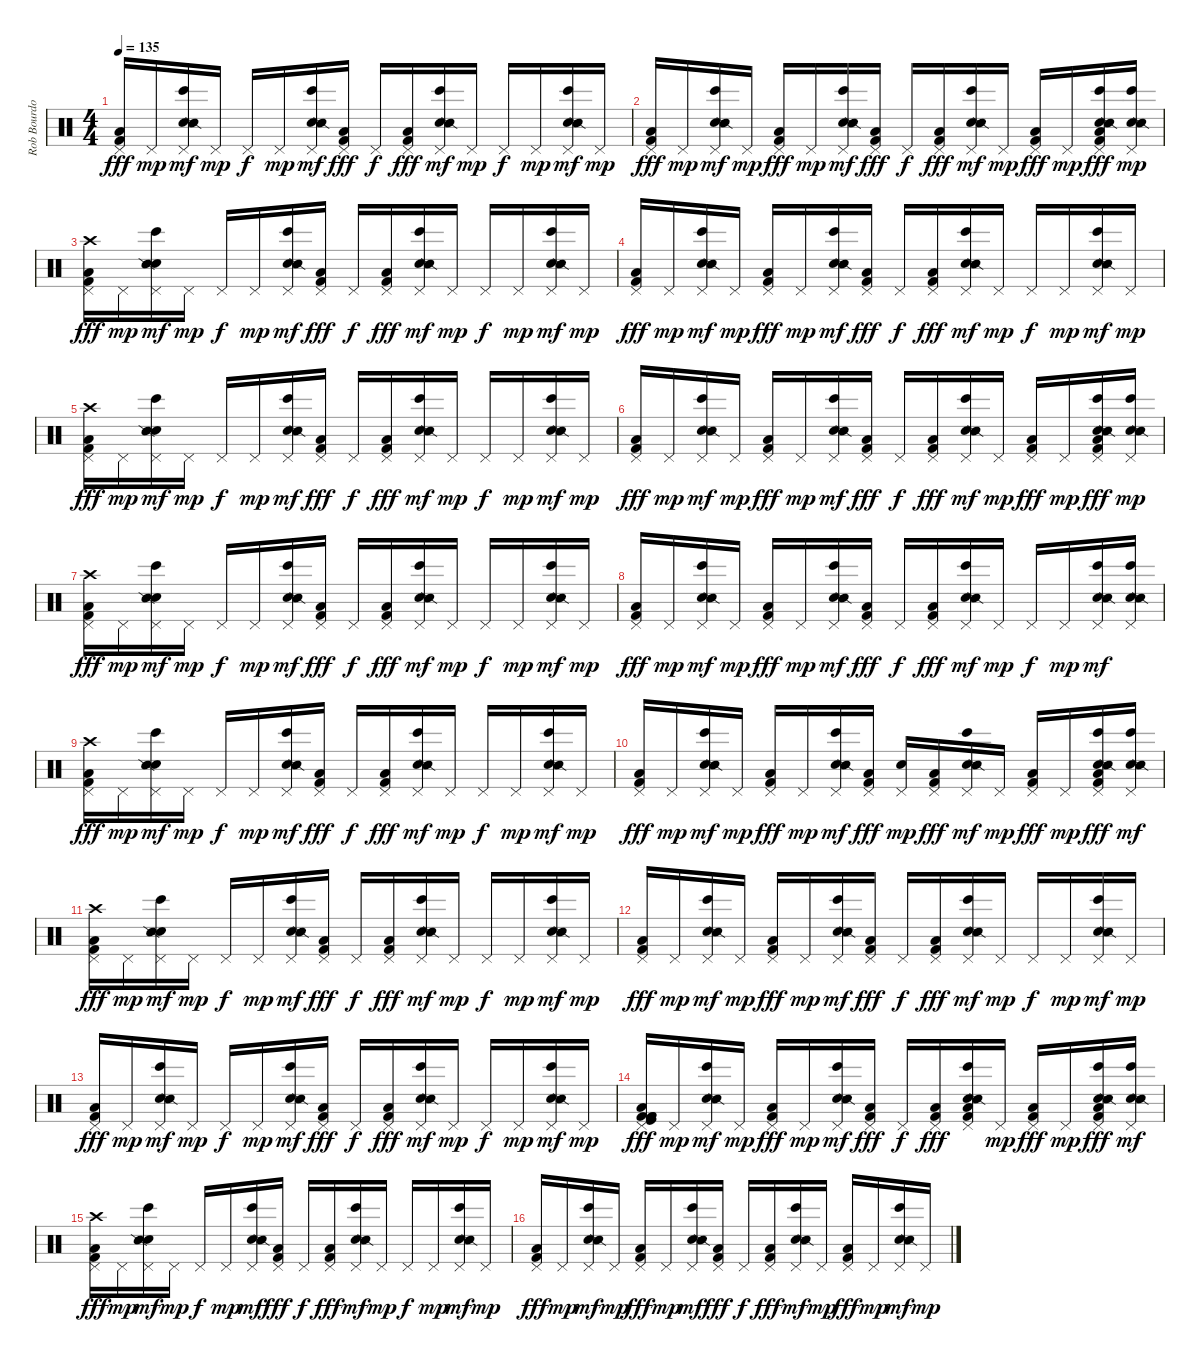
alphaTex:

\track ("Rob Bourdon - Beats & Drums" "Rob Bourdo") {instrument percussion}
\staff {score}
\articulation defaults
\ts (4 4)
\tempo 135
\clef neutral
\ks c
("Low Floor Tom (hit)" "Pedal Hi-Hat (hit)" "Kick (hit) 2").16{dy fff} "Pedal Hi-Hat (hit)".16{dy mp} ("Bongo High (hit)" "Electric Snare (hit)" "Snare (side stick) 2" "Pedal Hi-Hat (hit)").16{dy mf} "Pedal Hi-Hat (hit)".16{dy mp} "Pedal Hi-Hat (hit)".16{dy f} "Pedal Hi-Hat (hit)".16{dy mp} ("Bongo High (hit)" "Electric Snare (hit)" "Snare (side stick) 2" "Pedal Hi-Hat (hit)").16{dy mf} ("Low Floor Tom (hit)" "Pedal Hi-Hat (hit)" "Kick (hit) 2").16{dy fff} "Pedal Hi-Hat (hit)".16{dy f} ("Low Floor Tom (hit)" "Pedal Hi-Hat (hit)" "Kick (hit) 2").16{dy fff} ("Bongo High (hit)" "Electric Snare (hit)" "Snare (side stick) 2" "Pedal Hi-Hat (hit)").16{dy mf} "Pedal Hi-Hat (hit)".16{dy mp} "Pedal Hi-Hat (hit)".16{dy f} "Pedal Hi-Hat (hit)".16{dy mp} ("Bongo High (hit)" "Electric Snare (hit)" "Snare (side stick) 2" "Pedal Hi-Hat (hit)").16{dy mf} "Pedal Hi-Hat (hit)".16{dy mp} |
("Low Floor Tom (hit)" "Pedal Hi-Hat (hit)" "Kick (hit) 2").16{dy fff} "Pedal Hi-Hat (hit)".16{dy mp} ("Bongo High (hit)" "Electric Snare (hit)" "Snare (side stick) 2" "Pedal Hi-Hat (hit)").16{dy mf} "Pedal Hi-Hat (hit)".16{dy mp} ("Low Floor Tom (hit)" "Pedal Hi-Hat (hit)" "Kick (hit) 2").16{dy fff} "Pedal Hi-Hat (hit)".16{dy mp} ("Bongo High (hit)" "Electric Snare (hit)" "Snare (side stick) 2" "Pedal Hi-Hat (hit)").16{dy mf} ("Low Floor Tom (hit)" "Pedal Hi-Hat (hit)" "Kick (hit) 2").16{dy fff} "Pedal Hi-Hat (hit)".16{dy f} ("Low Floor Tom (hit)" "Pedal Hi-Hat (hit)" "Kick (hit) 2").16{dy fff} ("Bongo High (hit)" "Electric Snare (hit)" "Snare (side stick) 2" "Pedal Hi-Hat (hit)").16{dy mf} "Pedal Hi-Hat (hit)".16{dy mp} ("Low Floor Tom (hit)" "Pedal Hi-Hat (hit)" "Kick (hit) 2").16{dy fff} "Pedal Hi-Hat (hit)".16{dy mp} ("Low Floor Tom (hit)" "Bongo High (hit)" "Electric Snare (hit)" "Snare (side stick) 2" "Pedal Hi-Hat (hit)" "Kick (hit) 2").16{dy fff} ("Bongo High (hit)" "Electric Snare (hit)" "Snare (side stick) 2" "Pedal Hi-Hat (hit)").16{dy mp} |
("Crash high (hit)" "Low Floor Tom (hit)" "Pedal Hi-Hat (hit)" "Kick (hit) 2").16{dy fff} "Pedal Hi-Hat (hit)".16{dy mp} ("Bongo High (hit)" "Electric Snare (hit)" "Snare (side stick) 2" "Pedal Hi-Hat (hit)").16{dy mf} "Pedal Hi-Hat (hit)".16{dy mp} "Pedal Hi-Hat (hit)".16{dy f} "Pedal Hi-Hat (hit)".16{dy mp} ("Bongo High (hit)" "Electric Snare (hit)" "Snare (side stick) 2" "Pedal Hi-Hat (hit)").16{dy mf} ("Low Floor Tom (hit)" "Pedal Hi-Hat (hit)" "Kick (hit) 2").16{dy fff} "Pedal Hi-Hat (hit)".16{dy f} ("Low Floor Tom (hit)" "Pedal Hi-Hat (hit)" "Kick (hit) 2").16{dy fff} ("Bongo High (hit)" "Electric Snare (hit)" "Snare (side stick) 2" "Pedal Hi-Hat (hit)").16{dy mf} "Pedal Hi-Hat (hit)".16{dy mp} "Pedal Hi-Hat (hit)".16{dy f} "Pedal Hi-Hat (hit)".16{dy mp} ("Bongo High (hit)" "Electric Snare (hit)" "Snare (side stick) 2" "Pedal Hi-Hat (hit)").16{dy mf} "Pedal Hi-Hat (hit)".16{dy mp} |
("Low Floor Tom (hit)" "Pedal Hi-Hat (hit)" "Kick (hit) 2").16{dy fff} "Pedal Hi-Hat (hit)".16{dy mp} ("Bongo High (hit)" "Electric Snare (hit)" "Snare (side stick) 2" "Pedal Hi-Hat (hit)").16{dy mf} "Pedal Hi-Hat (hit)".16{dy mp} ("Low Floor Tom (hit)" "Pedal Hi-Hat (hit)" "Kick (hit) 2").16{dy fff} "Pedal Hi-Hat (hit)".16{dy mp} ("Bongo High (hit)" "Electric Snare (hit)" "Snare (side stick) 2" "Pedal Hi-Hat (hit)").16{dy mf} ("Low Floor Tom (hit)" "Pedal Hi-Hat (hit)" "Kick (hit) 2").16{dy fff} "Pedal Hi-Hat (hit)".16{dy f} ("Low Floor Tom (hit)" "Pedal Hi-Hat (hit)" "Kick (hit) 2").16{dy fff} ("Bongo High (hit)" "Electric Snare (hit)" "Snare (side stick) 2" "Pedal Hi-Hat (hit)").16{dy mf} "Pedal Hi-Hat (hit)".16{dy mp} "Pedal Hi-Hat (hit)".16{dy f} "Pedal Hi-Hat (hit)".16{dy mp} ("Bongo High (hit)" "Electric Snare (hit)" "Snare (side stick) 2" "Pedal Hi-Hat (hit)").16{dy mf} "Pedal Hi-Hat (hit)".16{dy mp} |
("Crash high (hit)" "Low Floor Tom (hit)" "Pedal Hi-Hat (hit)" "Kick (hit) 2").16{dy fff} "Pedal Hi-Hat (hit)".16{dy mp} ("Bongo High (hit)" "Electric Snare (hit)" "Snare (side stick) 2" "Pedal Hi-Hat (hit)").16{dy mf} "Pedal Hi-Hat (hit)".16{dy mp} "Pedal Hi-Hat (hit)".16{dy f} "Pedal Hi-Hat (hit)".16{dy mp} ("Bongo High (hit)" "Electric Snare (hit)" "Snare (side stick) 2" "Pedal Hi-Hat (hit)").16{dy mf} ("Low Floor Tom (hit)" "Pedal Hi-Hat (hit)" "Kick (hit) 2").16{dy fff} "Pedal Hi-Hat (hit)".16{dy f} ("Low Floor Tom (hit)" "Pedal Hi-Hat (hit)" "Kick (hit) 2").16{dy fff} ("Bongo High (hit)" "Electric Snare (hit)" "Snare (side stick) 2" "Pedal Hi-Hat (hit)").16{dy mf} "Pedal Hi-Hat (hit)".16{dy mp} "Pedal Hi-Hat (hit)".16{dy f} "Pedal Hi-Hat (hit)".16{dy mp} ("Bongo High (hit)" "Electric Snare (hit)" "Snare (side stick) 2" "Pedal Hi-Hat (hit)").16{dy mf} "Pedal Hi-Hat (hit)".16{dy mp} |
("Low Floor Tom (hit)" "Pedal Hi-Hat (hit)" "Kick (hit) 2").16{dy fff} "Pedal Hi-Hat (hit)".16{dy mp} ("Bongo High (hit)" "Electric Snare (hit)" "Snare (side stick) 2" "Pedal Hi-Hat (hit)").16{dy mf} "Pedal Hi-Hat (hit)".16{dy mp} ("Low Floor Tom (hit)" "Pedal Hi-Hat (hit)" "Kick (hit) 2").16{dy fff} "Pedal Hi-Hat (hit)".16{dy mp} ("Bongo High (hit)" "Electric Snare (hit)" "Snare (side stick) 2" "Pedal Hi-Hat (hit)").16{dy mf} ("Low Floor Tom (hit)" "Pedal Hi-Hat (hit)" "Kick (hit) 2").16{dy fff} "Pedal Hi-Hat (hit)".16{dy f} ("Low Floor Tom (hit)" "Pedal Hi-Hat (hit)" "Kick (hit) 2").16{dy fff} ("Bongo High (hit)" "Electric Snare (hit)" "Snare (side stick) 2" "Pedal Hi-Hat (hit)").16{dy mf} "Pedal Hi-Hat (hit)".16{dy mp} ("Low Floor Tom (hit)" "Pedal Hi-Hat (hit)" "Kick (hit) 2").16{dy fff} "Pedal Hi-Hat (hit)".16{dy mp} ("Low Floor Tom (hit)" "Bongo High (hit)" "Electric Snare (hit)" "Snare (side stick) 2" "Pedal Hi-Hat (hit)" "Kick (hit) 2").16{dy fff} ("Bongo High (hit)" "Electric Snare (hit)" "Snare (side stick) 2" "Pedal Hi-Hat (hit)").16{dy mp} |
("Crash high (hit)" "Low Floor Tom (hit)" "Pedal Hi-Hat (hit)" "Kick (hit) 2").16{dy fff} "Pedal Hi-Hat (hit)".16{dy mp} ("Bongo High (hit)" "Electric Snare (hit)" "Snare (side stick) 2" "Pedal Hi-Hat (hit)").16{dy mf} "Pedal Hi-Hat (hit)".16{dy mp} "Pedal Hi-Hat (hit)".16{dy f} "Pedal Hi-Hat (hit)".16{dy mp} ("Bongo High (hit)" "Electric Snare (hit)" "Snare (side stick) 2" "Pedal Hi-Hat (hit)").16{dy mf} ("Low Floor Tom (hit)" "Pedal Hi-Hat (hit)" "Kick (hit) 2").16{dy fff} "Pedal Hi-Hat (hit)".16{dy f} ("Low Floor Tom (hit)" "Pedal Hi-Hat (hit)" "Kick (hit) 2").16{dy fff} ("Bongo High (hit)" "Electric Snare (hit)" "Snare (side stick) 2" "Pedal Hi-Hat (hit)").16{dy mf} "Pedal Hi-Hat (hit)".16{dy mp} "Pedal Hi-Hat (hit)".16{dy f} "Pedal Hi-Hat (hit)".16{dy mp} ("Bongo High (hit)" "Electric Snare (hit)" "Snare (side stick) 2" "Pedal Hi-Hat (hit)").16{dy mf} "Pedal Hi-Hat (hit)".16{dy mp} |
("Low Floor Tom (hit)" "Pedal Hi-Hat (hit)" "Kick (hit) 2").16{dy fff} "Pedal Hi-Hat (hit)".16{dy mp} ("Bongo High (hit)" "Electric Snare (hit)" "Snare (side stick) 2" "Pedal Hi-Hat (hit)").16{dy mf} "Pedal Hi-Hat (hit)".16{dy mp} ("Low Floor Tom (hit)" "Pedal Hi-Hat (hit)" "Kick (hit) 2").16{dy fff} "Pedal Hi-Hat (hit)".16{dy mp} ("Bongo High (hit)" "Electric Snare (hit)" "Snare (side stick) 2" "Pedal Hi-Hat (hit)").16{dy mf} ("Low Floor Tom (hit)" "Pedal Hi-Hat (hit)" "Kick (hit) 2").16{dy fff} "Pedal Hi-Hat (hit)".16{dy f} ("Low Floor Tom (hit)" "Pedal Hi-Hat (hit)" "Kick (hit) 2").16{dy fff} ("Bongo High (hit)" "Electric Snare (hit)" "Snare (side stick) 2" "Pedal Hi-Hat (hit)").16{dy mf} "Pedal Hi-Hat (hit)".16{dy mp} "Pedal Hi-Hat (hit)".16{dy f} "Pedal Hi-Hat (hit)".16{dy mp} ("Bongo High (hit)" "Electric Snare (hit)" "Snare (side stick) 2" "Pedal Hi-Hat (hit)").16{dy mf} ("Bongo High (hit)" "Electric Snare (hit)" "Snare (side stick) 2" "Pedal Hi-Hat (hit)").16 |
("Crash high (hit)" "Low Floor Tom (hit)" "Pedal Hi-Hat (hit)" "Kick (hit) 2").16{dy fff} "Pedal Hi-Hat (hit)".16{dy mp} ("Bongo High (hit)" "Electric Snare (hit)" "Snare (side stick) 2" "Pedal Hi-Hat (hit)").16{dy mf} "Pedal Hi-Hat (hit)".16{dy mp} "Pedal Hi-Hat (hit)".16{dy f} "Pedal Hi-Hat (hit)".16{dy mp} ("Bongo High (hit)" "Electric Snare (hit)" "Snare (side stick) 2" "Pedal Hi-Hat (hit)").16{dy mf} ("Low Floor Tom (hit)" "Pedal Hi-Hat (hit)" "Kick (hit) 2").16{dy fff} "Pedal Hi-Hat (hit)".16{dy f} ("Low Floor Tom (hit)" "Pedal Hi-Hat (hit)" "Kick (hit) 2").16{dy fff} ("Bongo High (hit)" "Electric Snare (hit)" "Snare (side stick) 2" "Pedal Hi-Hat (hit)").16{dy mf} "Pedal Hi-Hat (hit)".16{dy mp} "Pedal Hi-Hat (hit)".16{dy f} "Pedal Hi-Hat (hit)".16{dy mp} ("Bongo High (hit)" "Electric Snare (hit)" "Snare (side stick) 2" "Pedal Hi-Hat (hit)").16{dy mf} "Pedal Hi-Hat (hit)".16{dy mp} |
("Low Floor Tom (hit)" "Pedal Hi-Hat (hit)" "Kick (hit) 2").16{dy fff} "Pedal Hi-Hat (hit)".16{dy mp} ("Bongo High (hit)" "Electric Snare (hit)" "Snare (side stick) 2" "Pedal Hi-Hat (hit)").16{dy mf} "Pedal Hi-Hat (hit)".16{dy mp} ("Low Floor Tom (hit)" "Pedal Hi-Hat (hit)" "Kick (hit) 2").16{dy fff} "Pedal Hi-Hat (hit)".16{dy mp} ("Bongo High (hit)" "Electric Snare (hit)" "Snare (side stick) 2" "Pedal Hi-Hat (hit)").16{dy mf} ("Low Floor Tom (hit)" "Pedal Hi-Hat (hit)" "Kick (hit) 2").16{dy fff} ("Electric Snare (hit)" "Pedal Hi-Hat (hit)").16{dy mp} ("Low Floor Tom (hit)" "Pedal Hi-Hat (hit)" "Kick (hit) 2").16{dy fff} ("Bongo High (hit)" "Electric Snare (hit)" "Snare (side stick) 2" "Pedal Hi-Hat (hit)").16{dy mf} "Pedal Hi-Hat (hit)".16{dy mp} ("Low Floor Tom (hit)" "Pedal Hi-Hat (hit)" "Kick (hit) 2").16{dy fff} "Pedal Hi-Hat (hit)".16{dy mp} ("Low Floor Tom (hit)" "Bongo High (hit)" "Electric Snare (hit)" "Snare (side stick) 2" "Pedal Hi-Hat (hit)" "Kick (hit) 2").16{dy fff} ("Bongo High (hit)" "Electric Snare (hit)" "Snare (side stick) 2" "Pedal Hi-Hat (hit)").16{dy mf} |
("Crash high (hit)" "Low Floor Tom (hit)" "Pedal Hi-Hat (hit)" "Kick (hit) 2").16{dy fff} "Pedal Hi-Hat (hit)".16{dy mp} ("Bongo High (hit)" "Electric Snare (hit)" "Snare (side stick) 2" "Pedal Hi-Hat (hit)").16{dy mf} "Pedal Hi-Hat (hit)".16{dy mp} "Pedal Hi-Hat (hit)".16{dy f} "Pedal Hi-Hat (hit)".16{dy mp} ("Bongo High (hit)" "Electric Snare (hit)" "Snare (side stick) 2" "Pedal Hi-Hat (hit)").16{dy mf} ("Low Floor Tom (hit)" "Pedal Hi-Hat (hit)" "Kick (hit) 2").16{dy fff} "Pedal Hi-Hat (hit)".16{dy f} ("Low Floor Tom (hit)" "Pedal Hi-Hat (hit)" "Kick (hit) 2").16{dy fff} ("Bongo High (hit)" "Electric Snare (hit)" "Snare (side stick) 2" "Pedal Hi-Hat (hit)").16{dy mf} "Pedal Hi-Hat (hit)".16{dy mp} "Pedal Hi-Hat (hit)".16{dy f} "Pedal Hi-Hat (hit)".16{dy mp} ("Bongo High (hit)" "Electric Snare (hit)" "Snare (side stick) 2" "Pedal Hi-Hat (hit)").16{dy mf} "Pedal Hi-Hat (hit)".16{dy mp} |
("Low Floor Tom (hit)" "Pedal Hi-Hat (hit)" "Kick (hit) 2").16{dy fff} "Pedal Hi-Hat (hit)".16{dy mp} ("Bongo High (hit)" "Electric Snare (hit)" "Snare (side stick) 2" "Pedal Hi-Hat (hit)").16{dy mf} "Pedal Hi-Hat (hit)".16{dy mp} ("Low Floor Tom (hit)" "Pedal Hi-Hat (hit)" "Kick (hit) 2").16{dy fff} "Pedal Hi-Hat (hit)".16{dy mp} ("Bongo High (hit)" "Electric Snare (hit)" "Snare (side stick) 2" "Pedal Hi-Hat (hit)").16{dy mf} ("Low Floor Tom (hit)" "Pedal Hi-Hat (hit)" "Kick (hit) 2").16{dy fff} "Pedal Hi-Hat (hit)".16{dy f} ("Low Floor Tom (hit)" "Pedal Hi-Hat (hit)" "Kick (hit) 2").16{dy fff} ("Bongo High (hit)" "Electric Snare (hit)" "Snare (side stick) 2" "Pedal Hi-Hat (hit)").16{dy mf} "Pedal Hi-Hat (hit)".16{dy mp} "Pedal Hi-Hat (hit)".16{dy f} "Pedal Hi-Hat (hit)".16{dy mp} ("Bongo High (hit)" "Electric Snare (hit)" "Snare (side stick) 2" "Pedal Hi-Hat (hit)").16{dy mf} "Pedal Hi-Hat (hit)".16{dy mp} |
("Low Floor Tom (hit)" "Pedal Hi-Hat (hit)" "Kick (hit) 2").16{dy fff} "Pedal Hi-Hat (hit)".16{dy mp} ("Bongo High (hit)" "Electric Snare (hit)" "Snare (side stick) 2" "Pedal Hi-Hat (hit)").16{dy mf} "Pedal Hi-Hat (hit)".16{dy mp} "Pedal Hi-Hat (hit)".16{dy f} "Pedal Hi-Hat (hit)".16{dy mp} ("Bongo High (hit)" "Electric Snare (hit)" "Snare (side stick) 2" "Pedal Hi-Hat (hit)").16{dy mf} ("Low Floor Tom (hit)" "Pedal Hi-Hat (hit)" "Kick (hit) 2").16{dy fff} "Pedal Hi-Hat (hit)".16{dy f} ("Low Floor Tom (hit)" "Pedal Hi-Hat (hit)" "Kick (hit) 2").16{dy fff} ("Bongo High (hit)" "Electric Snare (hit)" "Snare (side stick) 2" "Pedal Hi-Hat (hit)").16{dy mf} "Pedal Hi-Hat (hit)".16{dy mp} "Pedal Hi-Hat (hit)".16{dy f} "Pedal Hi-Hat (hit)".16{dy mp} ("Bongo High (hit)" "Electric Snare (hit)" "Snare (side stick) 2" "Pedal Hi-Hat (hit)").16{dy mf} "Pedal Hi-Hat (hit)".16{dy mp} |
("Low Floor Tom (hit)" "Kick (hit) 2" "Kick (hit) 2" "Kick (hit)" "Pedal Hi-Hat (hit)" "Kick (hit) 2").16{dy fff} "Pedal Hi-Hat (hit)".16{dy mp} ("Bongo High (hit)" "Electric Snare (hit)" "Snare (side stick) 2" "Pedal Hi-Hat (hit)").16{dy mf} "Pedal Hi-Hat (hit)".16{dy mp} ("Low Floor Tom (hit)" "Pedal Hi-Hat (hit)" "Kick (hit) 2").16{dy fff} "Pedal Hi-Hat (hit)".16{dy mp} ("Bongo High (hit)" "Electric Snare (hit)" "Snare (side stick) 2" "Pedal Hi-Hat (hit)").16{dy mf} ("Low Floor Tom (hit)" "Pedal Hi-Hat (hit)" "Kick (hit) 2").16{dy fff} "Pedal Hi-Hat (hit)".16{dy f} ("Low Floor Tom (hit)" "Pedal Hi-Hat (hit)" "Kick (hit) 2").16{dy fff} ("Low Floor Tom (hit)" "Bongo High (hit)" "Electric Snare (hit)" "Snare (side stick) 2" "Pedal Hi-Hat (hit)" "Kick (hit) 2").16 "Pedal Hi-Hat (hit)".16{dy mp} ("Low Floor Tom (hit)" "Pedal Hi-Hat (hit)" "Kick (hit) 2").16{dy fff} "Pedal Hi-Hat (hit)".16{dy mp} ("Low Floor Tom (hit)" "Bongo High (hit)" "Electric Snare (hit)" "Snare (side stick) 2" "Pedal Hi-Hat (hit)" "Kick (hit) 2").16{dy fff} ("Bongo High (hit)" "Electric Snare (hit)" "Snare (side stick) 2" "Pedal Hi-Hat (hit)").16{dy mf} |
("Crash high (hit)" "Low Floor Tom (hit)" "Pedal Hi-Hat (hit)" "Kick (hit) 2").16{dy fff} "Pedal Hi-Hat (hit)".16{dy mp} ("Bongo High (hit)" "Electric Snare (hit)" "Snare (side stick) 2" "Pedal Hi-Hat (hit)").16{dy mf} "Pedal Hi-Hat (hit)".16{dy mp} "Pedal Hi-Hat (hit)".16{dy f} "Pedal Hi-Hat (hit)".16{dy mp} ("Bongo High (hit)" "Electric Snare (hit)" "Snare (side stick) 2" "Pedal Hi-Hat (hit)").16{dy mf} ("Low Floor Tom (hit)" "Pedal Hi-Hat (hit)" "Kick (hit) 2").16{dy fff} "Pedal Hi-Hat (hit)".16{dy f} ("Low Floor Tom (hit)" "Pedal Hi-Hat (hit)" "Kick (hit) 2").16{dy fff} ("Bongo High (hit)" "Electric Snare (hit)" "Snare (side stick) 2" "Pedal Hi-Hat (hit)").16{dy mf} "Pedal Hi-Hat (hit)".16{dy mp} "Pedal Hi-Hat (hit)".16{dy f} "Pedal Hi-Hat (hit)".16{dy mp} ("Bongo High (hit)" "Electric Snare (hit)" "Snare (side stick) 2" "Pedal Hi-Hat (hit)").16{dy mf} "Pedal Hi-Hat (hit)".16{dy mp} |
("Low Floor Tom (hit)" "Pedal Hi-Hat (hit)" "Kick (hit) 2").16{dy fff} "Pedal Hi-Hat (hit)".16{dy mp} ("Bongo High (hit)" "Electric Snare (hit)" "Snare (side stick) 2" "Pedal Hi-Hat (hit)").16{dy mf} "Pedal Hi-Hat (hit)".16{dy mp} ("Low Floor Tom (hit)" "Pedal Hi-Hat (hit)" "Kick (hit) 2").16{dy fff} "Pedal Hi-Hat (hit)".16{dy mp} ("Bongo High (hit)" "Electric Snare (hit)" "Snare (side stick) 2" "Pedal Hi-Hat (hit)").16{dy mf} ("Low Floor Tom (hit)" "Pedal Hi-Hat (hit)" "Kick (hit) 2").16{dy fff} "Pedal Hi-Hat (hit)".16{dy f} ("Low Floor Tom (hit)" "Pedal Hi-Hat (hit)" "Kick (hit) 2").16{dy fff} ("Bongo High (hit)" "Electric Snare (hit)" "Snare (side stick) 2" "Pedal Hi-Hat (hit)").16{dy mf} "Pedal Hi-Hat (hit)".16{dy mp} ("Low Floor Tom (hit)" "Pedal Hi-Hat (hit)" "Kick (hit) 2").16{dy fff} "Pedal Hi-Hat (hit)".16{dy mp} ("Bongo High (hit)" "Electric Snare (hit)" "Snare (side stick) 2" "Pedal Hi-Hat (hit)").16{dy mf} "Pedal Hi-Hat (hit)".16{dy mp}
